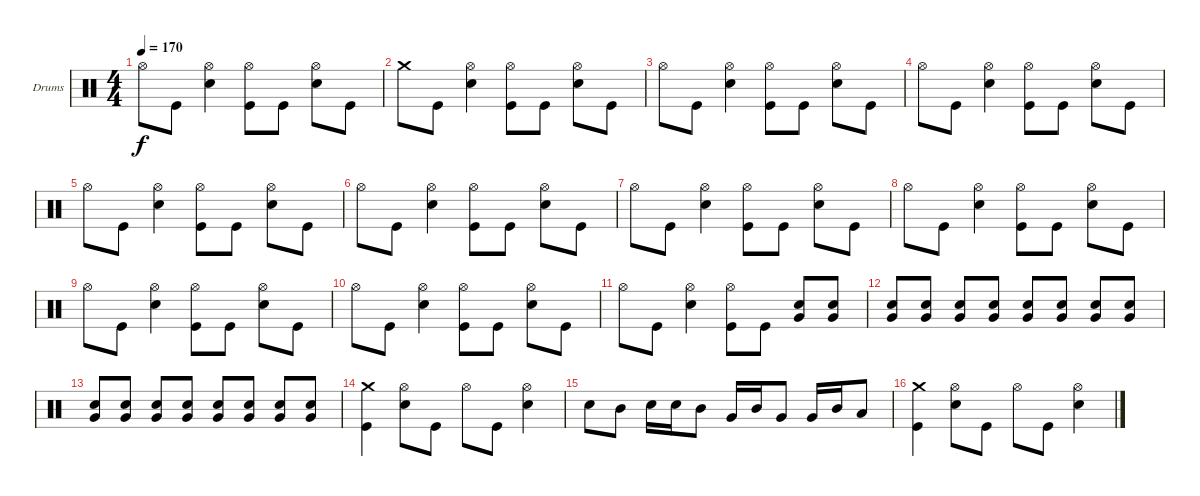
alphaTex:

\bracketExtendMode groupsimilarinstruments
\firstSystemTrackNameOrientation horizontal
\otherSystemsTrackNameOrientation horizontal
\track ("Ударные" "Drums") {instrument percussion}
\staff {score}
\articulation defaults
\ts (4 4)
\tempo 170
\clef neutral
\ks c "Hi-Hat (open)".8{dy f} "Kick (hit)".8
("Hi-Hat (open)" "Snare (hit) 2").4 ("Hi-Hat (open)" "Kick (hit)").8 "Kick (hit)".8 ("Hi-Hat (open)" "Snare (hit) 2").8 "Kick (hit)".8 |
"Crash medium (hit)".8 "Kick (hit)".8 ("Hi-Hat (open)" "Snare (hit) 2").4 ("Hi-Hat (open)" "Kick (hit)").8 "Kick (hit)".8 ("Hi-Hat (open)" "Snare (hit) 2").8 "Kick (hit)".8 |
"Hi-Hat (open)".8 "Kick (hit)".8 ("Hi-Hat (open)" "Snare (hit) 2").4 ("Hi-Hat (open)" "Kick (hit)").8 "Kick (hit)".8 ("Hi-Hat (open)" "Snare (hit) 2").8 "Kick (hit)".8 |
"Hi-Hat (open)".8 "Kick (hit)".8 ("Hi-Hat (open)" "Snare (hit) 2").4 ("Hi-Hat (open)" "Kick (hit)").8 "Kick (hit)".8 ("Hi-Hat (open)" "Snare (hit) 2").8 "Kick (hit)".8 |
"Hi-Hat (open)".8 "Kick (hit)".8 ("Hi-Hat (open)" "Snare (hit) 2").4 ("Hi-Hat (open)" "Kick (hit)").8 "Kick (hit)".8 ("Hi-Hat (open)" "Snare (hit) 2").8 "Kick (hit)".8 |
"Hi-Hat (open)".8 "Kick (hit)".8 ("Hi-Hat (open)" "Snare (hit) 2").4 ("Hi-Hat (open)" "Kick (hit)").8 "Kick (hit)".8 ("Hi-Hat (open)" "Snare (hit) 2").8 "Kick (hit)".8 |
"Hi-Hat (open)".8 "Kick (hit)".8 ("Hi-Hat (open)" "Snare (hit) 2").4 ("Hi-Hat (open)" "Kick (hit)").8 "Kick (hit)".8 ("Hi-Hat (open)" "Snare (hit) 2").8 "Kick (hit)".8 |
"Hi-Hat (open)".8 "Kick (hit)".8 ("Hi-Hat (open)" "Snare (hit) 2").4 ("Hi-Hat (open)" "Kick (hit)").8 "Kick (hit)".8 ("Hi-Hat (open)" "Snare (hit) 2").8 "Kick (hit)".8 |
"Hi-Hat (open)".8 "Kick (hit)".8 ("Hi-Hat (open)" "Snare (hit) 2").4 ("Hi-Hat (open)" "Kick (hit)").8 "Kick (hit)".8 ("Hi-Hat (open)" "Snare (hit) 2").8 "Kick (hit)".8 |
"Hi-Hat (open)".8 "Kick (hit)".8 ("Hi-Hat (open)" "Snare (hit) 2").4 ("Hi-Hat (open)" "Kick (hit)").8 "Kick (hit)".8 ("Hi-Hat (open)" "Snare (hit) 2").8 "Kick (hit)".8 |
"Hi-Hat (open)".8 "Kick (hit)".8 ("Hi-Hat (open)" "Snare (hit) 2").4 ("Hi-Hat (open)" "Kick (hit)").8 "Kick (hit)".8 ("Snare (hit) 2" "Very Low Tom (hit)").8 ("Snare (hit) 2" "Very Low Tom (hit)").8 |
("Snare (hit) 2" "Very Low Tom (hit)").8 ("Snare (hit) 2" "Very Low Tom (hit)").8 ("Snare (hit) 2" "Very Low Tom (hit)").8 ("Snare (hit) 2" "Very Low Tom (hit)").8 ("Snare (hit) 2" "Very Low Tom (hit)").8 ("Snare (hit) 2" "Very Low Tom (hit)").8 ("Snare (hit) 2" "Very Low Tom (hit)").8 ("Snare (hit) 2" "Very Low Tom (hit)").8 |
("Snare (hit) 2" "Very Low Tom (hit)").8 ("Snare (hit) 2" "Very Low Tom (hit)").8 ("Snare (hit) 2" "Very Low Tom (hit)").8 ("Snare (hit) 2" "Very Low Tom (hit)").8 ("Snare (hit) 2" "Very Low Tom (hit)").8 ("Snare (hit) 2" "Very Low Tom (hit)").8 ("Snare (hit) 2" "Very Low Tom (hit)").8 ("Snare (hit) 2" "Very Low Tom (hit)").8 |
("Crash medium (hit)" "Kick (hit)").4 ("Hi-Hat (open)" "Snare (hit) 2").8 "Kick (hit)".8 "Hi-Hat (open)".8 "Kick (hit)".8 ("Hi-Hat (open)" "Snare (hit) 2").4 |
"Snare (hit) 2".8 "Mid Tom (hit)".8 "Snare (hit) 2".16 "Snare (hit) 2".16 "Mid Tom (hit)".8 "Very Low Tom (hit)".16 "Mid Tom (hit)".16 "Very Low Tom (hit)".8 "Very Low Tom (hit)".16 "Mid Tom (hit)".16 "Low Tom (hit)".8 |
("Crash medium (hit)" "Kick (hit)").4 ("Hi-Hat (open)" "Snare (hit) 2").8 "Kick (hit)".8 "Hi-Hat (open)".8 "Kick (hit)".8 ("Hi-Hat (open)" "Snare (hit) 2").4
